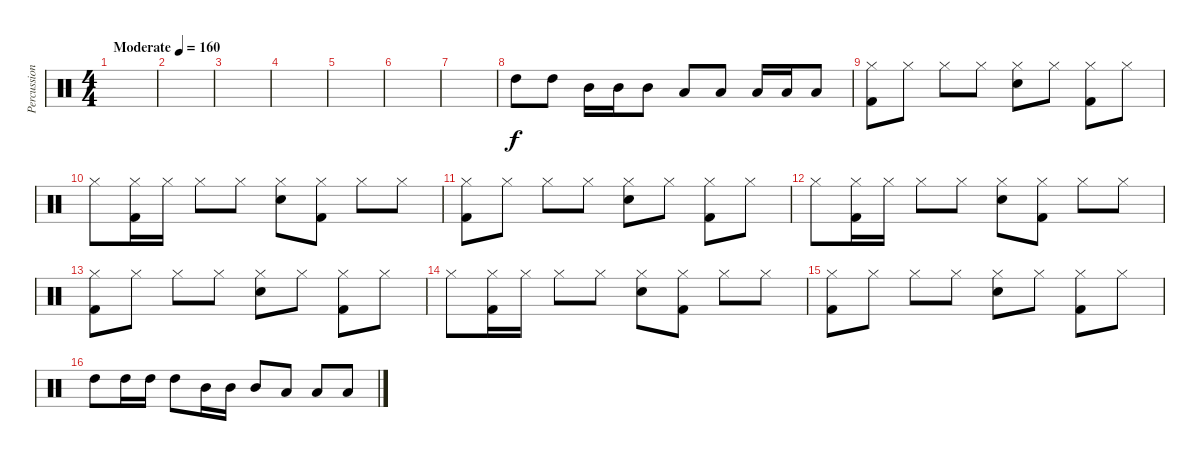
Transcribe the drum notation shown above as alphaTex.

\track ("Percussion" "Percussion") {instrument percussion}
\staff {score}
\articulation defaults
\ts (4 4)
\tempo (160 "Moderate")
\clef neutral
\ks c
|
|
|
|
|
|
|
"High Tom (hit)".8 "High Tom (hit)".8 "Mid Tom (hit)".16 "Mid Tom (hit)".16 "Mid Tom (hit)".8 "Low Tom (hit)".8 "Low Tom (hit)".8 "Low Floor Tom (hit)".16 "Low Floor Tom (hit)".16 "Low Floor Tom (hit)".8 |
("Hi-Hat (closed)" "Kick (hit) 2").8 "Hi-Hat (closed)".8 "Hi-Hat (closed)".8 "Hi-Hat (closed)".8 ("Hi-Hat (closed)" "Hand Clap (hit)").8 "Hi-Hat (closed)".8 ("Hi-Hat (closed)" "Kick (hit) 2").8 "Hi-Hat (closed)".8 |
"Hi-Hat (closed)".8 ("Hi-Hat (closed)" "Kick (hit) 2").16 "Hi-Hat (closed)".16 "Hi-Hat (closed)".8 "Hi-Hat (closed)".8 ("Hi-Hat (closed)" "Hand Clap (hit)").8 ("Hi-Hat (closed)" "Kick (hit) 2").8 "Hi-Hat (closed)".8 "Hi-Hat (closed)".8 |
("Hi-Hat (closed)" "Kick (hit) 2").8 "Hi-Hat (closed)".8 "Hi-Hat (closed)".8 "Hi-Hat (closed)".8 ("Hi-Hat (closed)" "Hand Clap (hit)").8 "Hi-Hat (closed)".8 ("Hi-Hat (closed)" "Kick (hit) 2").8 "Hi-Hat (closed)".8 |
"Hi-Hat (closed)".8 ("Hi-Hat (closed)" "Kick (hit) 2").16 "Hi-Hat (closed)".16 "Hi-Hat (closed)".8 "Hi-Hat (closed)".8 ("Hi-Hat (closed)" "Hand Clap (hit)").8 ("Hi-Hat (closed)" "Kick (hit) 2").8 "Hi-Hat (closed)".8 "Hi-Hat (closed)".8 |
("Hi-Hat (closed)" "Kick (hit) 2").8 "Hi-Hat (closed)".8 "Hi-Hat (closed)".8 "Hi-Hat (closed)".8 ("Hi-Hat (closed)" "Hand Clap (hit)").8 "Hi-Hat (closed)".8 ("Hi-Hat (closed)" "Kick (hit) 2").8 "Hi-Hat (closed)".8 |
"Hi-Hat (closed)".8 ("Hi-Hat (closed)" "Kick (hit) 2").16 "Hi-Hat (closed)".16 "Hi-Hat (closed)".8 "Hi-Hat (closed)".8 ("Hi-Hat (closed)" "Hand Clap (hit)").8 ("Hi-Hat (closed)" "Kick (hit) 2").8 "Hi-Hat (closed)".8 "Hi-Hat (closed)".8 |
("Hi-Hat (closed)" "Kick (hit) 2").8 "Hi-Hat (closed)".8 "Hi-Hat (closed)".8 "Hi-Hat (closed)".8 ("Hi-Hat (closed)" "Hand Clap (hit)").8 "Hi-Hat (closed)".8 ("Hi-Hat (closed)" "Kick (hit) 2").8 "Hi-Hat (closed)".8 |
"High Tom (hit)".8 "High Tom (hit)".16 "High Tom (hit)".16 "High Tom (hit)".8 "Mid Tom (hit)".16 "Mid Tom (hit)".16 "Mid Tom (hit)".8 "Low Tom (hit)".8 "Low Tom (hit)".8 "Low Floor Tom (hit)".8
